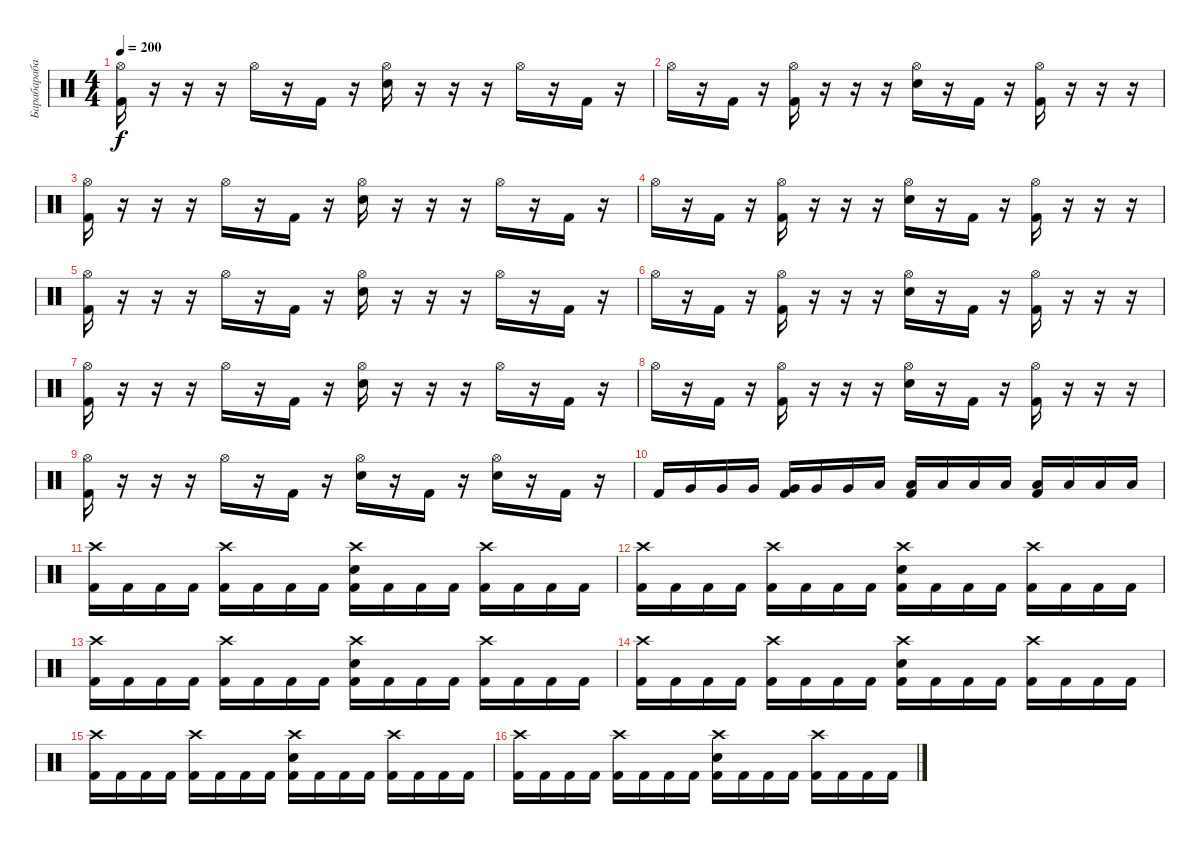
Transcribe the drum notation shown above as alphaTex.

\track ("Барабарабаны" "Барабараба") {instrument percussion}
\staff {score}
\articulation defaults
\ts (4 4)
\tempo 200
\clef neutral
\ks c
("Hi-Hat (open)" "Kick (hit) 2").16{dy f} r.16 r.16 r.16 "Hi-Hat (open)".16 r.16 "Kick (hit) 2".16 r.16 ("Hi-Hat (open)" "Electric Snare (hit)").16 r.16 r.16 r.16 "Hi-Hat (open)".16 r.16 "Kick (hit) 2".16 r.16 |
"Hi-Hat (open)".16 r.16 "Kick (hit) 2".16 r.16 ("Hi-Hat (open)" "Kick (hit) 2").16 r.16 r.16 r.16 ("Hi-Hat (open)" "Electric Snare (hit)").16 r.16 "Kick (hit) 2".16 r.16 ("Hi-Hat (open)" "Kick (hit) 2").16 r.16 r.16 r.16 |
("Hi-Hat (open)" "Kick (hit) 2").16 r.16 r.16 r.16 "Hi-Hat (open)".16 r.16 "Kick (hit) 2".16 r.16 ("Hi-Hat (open)" "Electric Snare (hit)").16 r.16 r.16 r.16 "Hi-Hat (open)".16 r.16 "Kick (hit) 2".16 r.16 |
"Hi-Hat (open)".16 r.16 "Kick (hit) 2".16 r.16 ("Hi-Hat (open)" "Kick (hit) 2").16 r.16 r.16 r.16 ("Hi-Hat (open)" "Electric Snare (hit)").16 r.16 "Kick (hit) 2".16 r.16 ("Hi-Hat (open)" "Kick (hit) 2").16 r.16 r.16 r.16 |
("Hi-Hat (open)" "Kick (hit) 2").16 r.16 r.16 r.16 "Hi-Hat (open)".16 r.16 "Kick (hit) 2".16 r.16 ("Hi-Hat (open)" "Electric Snare (hit)").16 r.16 r.16 r.16 "Hi-Hat (open)".16 r.16 "Kick (hit) 2".16 r.16 |
"Hi-Hat (open)".16 r.16 "Kick (hit) 2".16 r.16 ("Hi-Hat (open)" "Kick (hit) 2").16 r.16 r.16 r.16 ("Hi-Hat (open)" "Electric Snare (hit)").16 r.16 "Kick (hit) 2".16 r.16 ("Hi-Hat (open)" "Kick (hit) 2").16 r.16 r.16 r.16 |
("Hi-Hat (open)" "Kick (hit) 2").16 r.16 r.16 r.16 "Hi-Hat (open)".16 r.16 "Kick (hit) 2".16 r.16 ("Hi-Hat (open)" "Electric Snare (hit)").16 r.16 r.16 r.16 "Hi-Hat (open)".16 r.16 "Kick (hit) 2".16 r.16 |
"Hi-Hat (open)".16 r.16 "Kick (hit) 2".16 r.16 ("Hi-Hat (open)" "Kick (hit) 2").16 r.16 r.16 r.16 ("Hi-Hat (open)" "Electric Snare (hit)").16 r.16 "Kick (hit) 2".16 r.16 ("Hi-Hat (open)" "Kick (hit) 2").16 r.16 r.16 r.16 |
("Hi-Hat (open)" "Kick (hit) 2").16 r.16 r.16 r.16 "Hi-Hat (open)".16 r.16 "Kick (hit) 2".16 r.16 ("Hi-Hat (open)" "Electric Snare (hit)").16 r.16 "Kick (hit) 2".16 r.16 ("Hi-Hat (open)" "Electric Snare (hit)").16 r.16 "Kick (hit) 2".16 r.16 |
"Kick (hit) 2".16 "Very Low Tom (hit)".16 "Very Low Tom (hit)".16 "Very Low Tom (hit)".16 ("Kick (hit) 2" "Very Low Tom (hit)").16 "Very Low Tom (hit)".16 "Very Low Tom (hit)".16 "Low Tom (hit)".16 ("Kick (hit) 2" "Low Tom (hit)").16 "Low Tom (hit)".16 "Low Tom (hit)".16 "Low Tom (hit)".16 ("Kick (hit) 2" "Low Tom (hit)").16 "Low Tom (hit)".16 "Low Tom (hit)".16 "Low Tom (hit)".16 |
("Kick (hit) 2" "Crash high (hit)").16 "Kick (hit) 2".16 "Kick (hit) 2".16 "Kick (hit) 2".16 ("Kick (hit) 2" "Crash high (hit)").16 "Kick (hit) 2".16 "Kick (hit) 2".16 "Kick (hit) 2".16 ("Kick (hit) 2" "Electric Snare (hit)" "Crash high (hit)").16 "Kick (hit) 2".16 "Kick (hit) 2".16 "Kick (hit) 2".16 ("Kick (hit) 2" "Crash high (hit)").16 "Kick (hit) 2".16 "Kick (hit) 2".16 "Kick (hit) 2".16 |
("Kick (hit) 2" "Crash high (hit)").16 "Kick (hit) 2".16 "Kick (hit) 2".16 "Kick (hit) 2".16 ("Kick (hit) 2" "Crash high (hit)").16 "Kick (hit) 2".16 "Kick (hit) 2".16 "Kick (hit) 2".16 ("Kick (hit) 2" "Electric Snare (hit)" "Crash high (hit)").16 "Kick (hit) 2".16 "Kick (hit) 2".16 "Kick (hit) 2".16 ("Kick (hit) 2" "Crash high (hit)").16 "Kick (hit) 2".16 "Kick (hit) 2".16 "Kick (hit) 2".16 |
("Kick (hit) 2" "Crash high (hit)").16 "Kick (hit) 2".16 "Kick (hit) 2".16 "Kick (hit) 2".16 ("Kick (hit) 2" "Crash high (hit)").16 "Kick (hit) 2".16 "Kick (hit) 2".16 "Kick (hit) 2".16 ("Kick (hit) 2" "Electric Snare (hit)" "Crash high (hit)").16 "Kick (hit) 2".16 "Kick (hit) 2".16 "Kick (hit) 2".16 ("Kick (hit) 2" "Crash high (hit)").16 "Kick (hit) 2".16 "Kick (hit) 2".16 "Kick (hit) 2".16 |
("Kick (hit) 2" "Crash high (hit)").16 "Kick (hit) 2".16 "Kick (hit) 2".16 "Kick (hit) 2".16 ("Kick (hit) 2" "Crash high (hit)").16 "Kick (hit) 2".16 "Kick (hit) 2".16 "Kick (hit) 2".16 ("Kick (hit) 2" "Electric Snare (hit)" "Crash high (hit)").16 "Kick (hit) 2".16 "Kick (hit) 2".16 "Kick (hit) 2".16 ("Kick (hit) 2" "Crash high (hit)").16 "Kick (hit) 2".16 "Kick (hit) 2".16 "Kick (hit) 2".16 |
("Kick (hit) 2" "Crash high (hit)").16 "Kick (hit) 2".16 "Kick (hit) 2".16 "Kick (hit) 2".16 ("Kick (hit) 2" "Crash high (hit)").16 "Kick (hit) 2".16 "Kick (hit) 2".16 "Kick (hit) 2".16 ("Kick (hit) 2" "Electric Snare (hit)" "Crash high (hit)").16 "Kick (hit) 2".16 "Kick (hit) 2".16 "Kick (hit) 2".16 ("Kick (hit) 2" "Crash high (hit)").16 "Kick (hit) 2".16 "Kick (hit) 2".16 "Kick (hit) 2".16 |
("Kick (hit) 2" "Crash high (hit)").16 "Kick (hit) 2".16 "Kick (hit) 2".16 "Kick (hit) 2".16 ("Kick (hit) 2" "Crash high (hit)").16 "Kick (hit) 2".16 "Kick (hit) 2".16 "Kick (hit) 2".16 ("Kick (hit) 2" "Electric Snare (hit)" "Crash high (hit)").16 "Kick (hit) 2".16 "Kick (hit) 2".16 "Kick (hit) 2".16 ("Kick (hit) 2" "Crash high (hit)").16 "Kick (hit) 2".16 "Kick (hit) 2".16 "Kick (hit) 2".16
